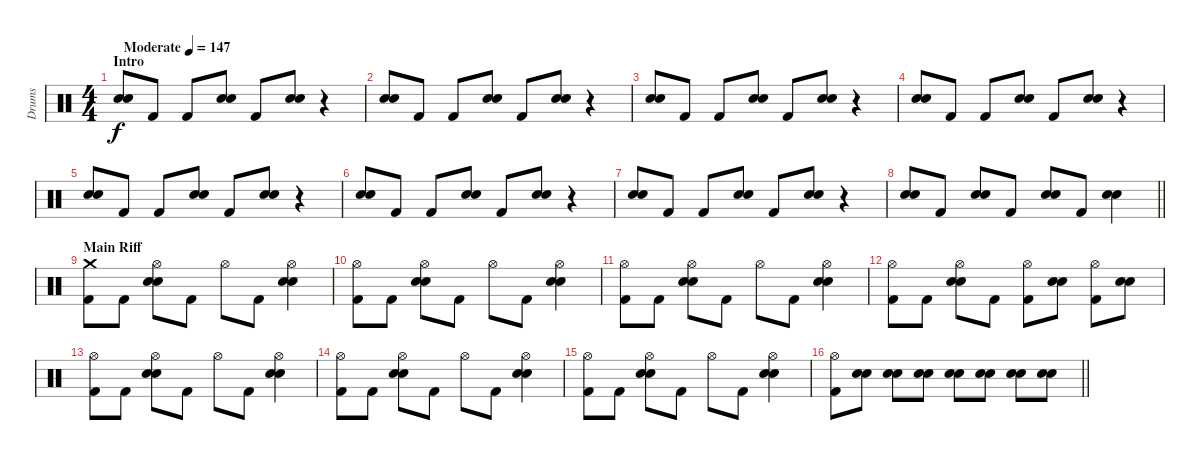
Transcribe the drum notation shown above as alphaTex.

\track ("Drums" "Drums") {instrument percussion}
\staff {score}
\articulation defaults
\ts (4 4)
\section ("" "Intro")
\tempo (147 "Moderate")
\clef neutral
\ks c
("Electric Snare (hit)" "Snare (hit) 2").8{dy f} "Kick (hit) 2".8 "Kick (hit) 2".8 ("Electric Snare (hit)" "Snare (hit) 2").8 "Kick (hit) 2".8 ("Electric Snare (hit)" "Snare (hit) 2").8 r.4 |
("Electric Snare (hit)" "Snare (hit) 2").8 "Kick (hit) 2".8 "Kick (hit) 2".8 ("Electric Snare (hit)" "Snare (hit) 2").8 "Kick (hit) 2".8 ("Electric Snare (hit)" "Snare (hit) 2").8 r.4 |
("Electric Snare (hit)" "Snare (hit) 2").8 "Kick (hit) 2".8 "Kick (hit) 2".8 ("Electric Snare (hit)" "Snare (hit) 2").8 "Kick (hit) 2".8 ("Electric Snare (hit)" "Snare (hit) 2").8 r.4 |
("Electric Snare (hit)" "Snare (hit) 2").8 "Kick (hit) 2".8 "Kick (hit) 2".8 ("Electric Snare (hit)" "Snare (hit) 2").8 "Kick (hit) 2".8 ("Electric Snare (hit)" "Snare (hit) 2").8 r.4 |
("Electric Snare (hit)" "Snare (hit) 2").8 "Kick (hit) 2".8 "Kick (hit) 2".8 ("Electric Snare (hit)" "Snare (hit) 2").8 "Kick (hit) 2".8 ("Electric Snare (hit)" "Snare (hit) 2").8 r.4 |
("Electric Snare (hit)" "Snare (hit) 2").8 "Kick (hit) 2".8 "Kick (hit) 2".8 ("Electric Snare (hit)" "Snare (hit) 2").8 "Kick (hit) 2".8 ("Electric Snare (hit)" "Snare (hit) 2").8 r.4 |
("Electric Snare (hit)" "Snare (hit) 2").8 "Kick (hit) 2".8 "Kick (hit) 2".8 ("Electric Snare (hit)" "Snare (hit) 2").8 "Kick (hit) 2".8 ("Electric Snare (hit)" "Snare (hit) 2").8 r.4 |
\barLineRight lightlight
("Electric Snare (hit)" "Snare (hit) 2").8 "Kick (hit) 2".8 ("Electric Snare (hit)" "Snare (hit) 2").8 "Kick (hit) 2".8 ("Electric Snare (hit)" "Snare (hit) 2").8 "Kick (hit) 2".8 ("Electric Snare (hit)" "Snare (hit) 2").4 |
\section ("" "Main Riff")
("Crash medium (hit)" "Kick (hit) 2").8 "Kick (hit) 2".8 ("Hi-Hat (open)" "Electric Snare (hit)" "Snare (hit) 2").8 "Kick (hit) 2".8 "Hi-Hat (open)".8 "Kick (hit) 2".8 ("Hi-Hat (open)" "Electric Snare (hit)" "Snare (hit) 2").4 |
("Hi-Hat (open)" "Kick (hit) 2").8 "Kick (hit) 2".8 ("Hi-Hat (open)" "Electric Snare (hit)" "Snare (hit) 2").8 "Kick (hit) 2".8 "Hi-Hat (open)".8 "Kick (hit) 2".8 ("Hi-Hat (open)" "Electric Snare (hit)" "Snare (hit) 2").4 |
("Hi-Hat (open)" "Kick (hit) 2").8 "Kick (hit) 2".8 ("Hi-Hat (open)" "Electric Snare (hit)" "Snare (hit) 2").8 "Kick (hit) 2".8 "Hi-Hat (open)".8 "Kick (hit) 2".8 ("Hi-Hat (open)" "Electric Snare (hit)" "Snare (hit) 2").4 |
("Hi-Hat (open)" "Kick (hit) 2").8 "Kick (hit) 2".8 ("Hi-Hat (open)" "Electric Snare (hit)" "Snare (hit) 2").8 "Kick (hit) 2".8 ("Hi-Hat (open)" "Kick (hit) 2").8 ("Electric Snare (hit)" "Snare (hit) 2").8 ("Hi-Hat (open)" "Kick (hit) 2").8 ("Electric Snare (hit)" "Snare (hit) 2").8 |
("Hi-Hat (open)" "Kick (hit) 2").8 "Kick (hit) 2".8 ("Hi-Hat (open)" "Electric Snare (hit)" "Snare (hit) 2").8 "Kick (hit) 2".8 "Hi-Hat (open)".8 "Kick (hit) 2".8 ("Hi-Hat (open)" "Electric Snare (hit)" "Snare (hit) 2").4 |
("Hi-Hat (open)" "Kick (hit) 2").8 "Kick (hit) 2".8 ("Hi-Hat (open)" "Electric Snare (hit)" "Snare (hit) 2").8 "Kick (hit) 2".8 "Hi-Hat (open)".8 "Kick (hit) 2".8 ("Hi-Hat (open)" "Electric Snare (hit)" "Snare (hit) 2").4 |
("Hi-Hat (open)" "Kick (hit) 2").8 "Kick (hit) 2".8 ("Hi-Hat (open)" "Electric Snare (hit)" "Snare (hit) 2").8 "Kick (hit) 2".8 "Hi-Hat (open)".8 "Kick (hit) 2".8 ("Hi-Hat (open)" "Electric Snare (hit)" "Snare (hit) 2").4 |
\barLineRight lightlight
("Hi-Hat (open)" "Kick (hit) 2").8 ("Electric Snare (hit)" "Snare (hit) 2").8 ("Electric Snare (hit)" "Snare (hit) 2").8 ("Electric Snare (hit)" "Snare (hit) 2").8 ("Electric Snare (hit)" "Snare (hit) 2").8 ("Electric Snare (hit)" "Snare (hit) 2").8 ("Electric Snare (hit)" "Snare (hit) 2").8 ("Electric Snare (hit)" "Snare (hit) 2").8
